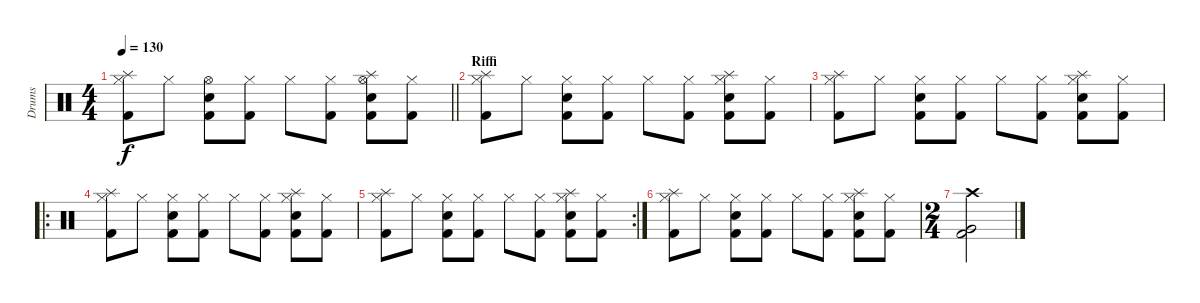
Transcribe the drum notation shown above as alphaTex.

\track ("Drums" "Drums") {instrument percussion}
\staff {score}
\articulation defaults
\ts (4 4)
\tempo 130
\clef neutral
\barLineRight lightlight
\ks c
("Splash (hit)" "Kick (hit) 2" "Hi-Hat (closed)").8{dy f} "Hi-Hat (closed)".8 ("Electric Snare (hit)" "Kick (hit) 2" "Hi-Hat (open)").8 ("Kick (hit) 2" "Hi-Hat (closed)").8 "Hi-Hat (closed)".8 ("Kick (hit) 2" "Hi-Hat (closed)").8 ("Splash (hit)" "Electric Snare (hit)" "Kick (hit) 2" "Hi-Hat (open)").8 ("Kick (hit) 2" "Hi-Hat (closed)").8 |
\section ("" "Riffi")
("Splash (hit)" "Kick (hit) 2" "Hi-Hat (closed)").8 "Hi-Hat (closed)".8 ("Electric Snare (hit)" "Kick (hit) 2" "Hi-Hat (closed)").8 ("Kick (hit) 2" "Hi-Hat (closed)").8 "Hi-Hat (closed)".8 ("Kick (hit) 2" "Hi-Hat (closed)").8 ("Splash (hit)" "Electric Snare (hit)" "Kick (hit) 2" "Hi-Hat (closed)").8 ("Kick (hit) 2" "Hi-Hat (closed)").8 |
("Splash (hit)" "Kick (hit) 2" "Hi-Hat (closed)").8 "Hi-Hat (closed)".8 ("Electric Snare (hit)" "Kick (hit) 2" "Hi-Hat (closed)").8 ("Kick (hit) 2" "Hi-Hat (closed)").8 "Hi-Hat (closed)".8 ("Kick (hit) 2" "Hi-Hat (closed)").8 ("Splash (hit)" "Electric Snare (hit)" "Kick (hit) 2" "Hi-Hat (closed)").8 ("Kick (hit) 2" "Hi-Hat (closed)").8 |
\ro
("Splash (hit)" "Kick (hit) 2" "Hi-Hat (closed)").8 "Hi-Hat (closed)".8 ("Electric Snare (hit)" "Kick (hit) 2" "Hi-Hat (closed)").8 ("Kick (hit) 2" "Hi-Hat (closed)").8 "Hi-Hat (closed)".8 ("Kick (hit) 2" "Hi-Hat (closed)").8 ("Splash (hit)" "Electric Snare (hit)" "Kick (hit) 2" "Hi-Hat (closed)").8 ("Kick (hit) 2" "Hi-Hat (closed)").8 |
\rc 2
("Splash (hit)" "Kick (hit) 2" "Hi-Hat (closed)").8 "Hi-Hat (closed)".8 ("Electric Snare (hit)" "Kick (hit) 2" "Hi-Hat (closed)").8 ("Kick (hit) 2" "Hi-Hat (closed)").8 "Hi-Hat (closed)".8 ("Kick (hit) 2" "Hi-Hat (closed)").8 ("Splash (hit)" "Electric Snare (hit)" "Kick (hit) 2" "Hi-Hat (closed)").8 ("Kick (hit) 2" "Hi-Hat (closed)").8 |
("Splash (hit)" "Kick (hit) 2" "Hi-Hat (closed)").8 "Hi-Hat (closed)".8 ("Electric Snare (hit)" "Kick (hit) 2" "Hi-Hat (closed)").8 ("Kick (hit) 2" "Hi-Hat (closed)").8 "Hi-Hat (closed)".8 ("Kick (hit) 2" "Hi-Hat (closed)").8 ("Splash (hit)" "Electric Snare (hit)" "Kick (hit) 2" "Hi-Hat (closed)").8 ("Kick (hit) 2" "Hi-Hat (closed)").8 |
\ts (2 4)
("Very Low Tom (hit)" "Crash high (hit)" "Kick (hit) 2").2
